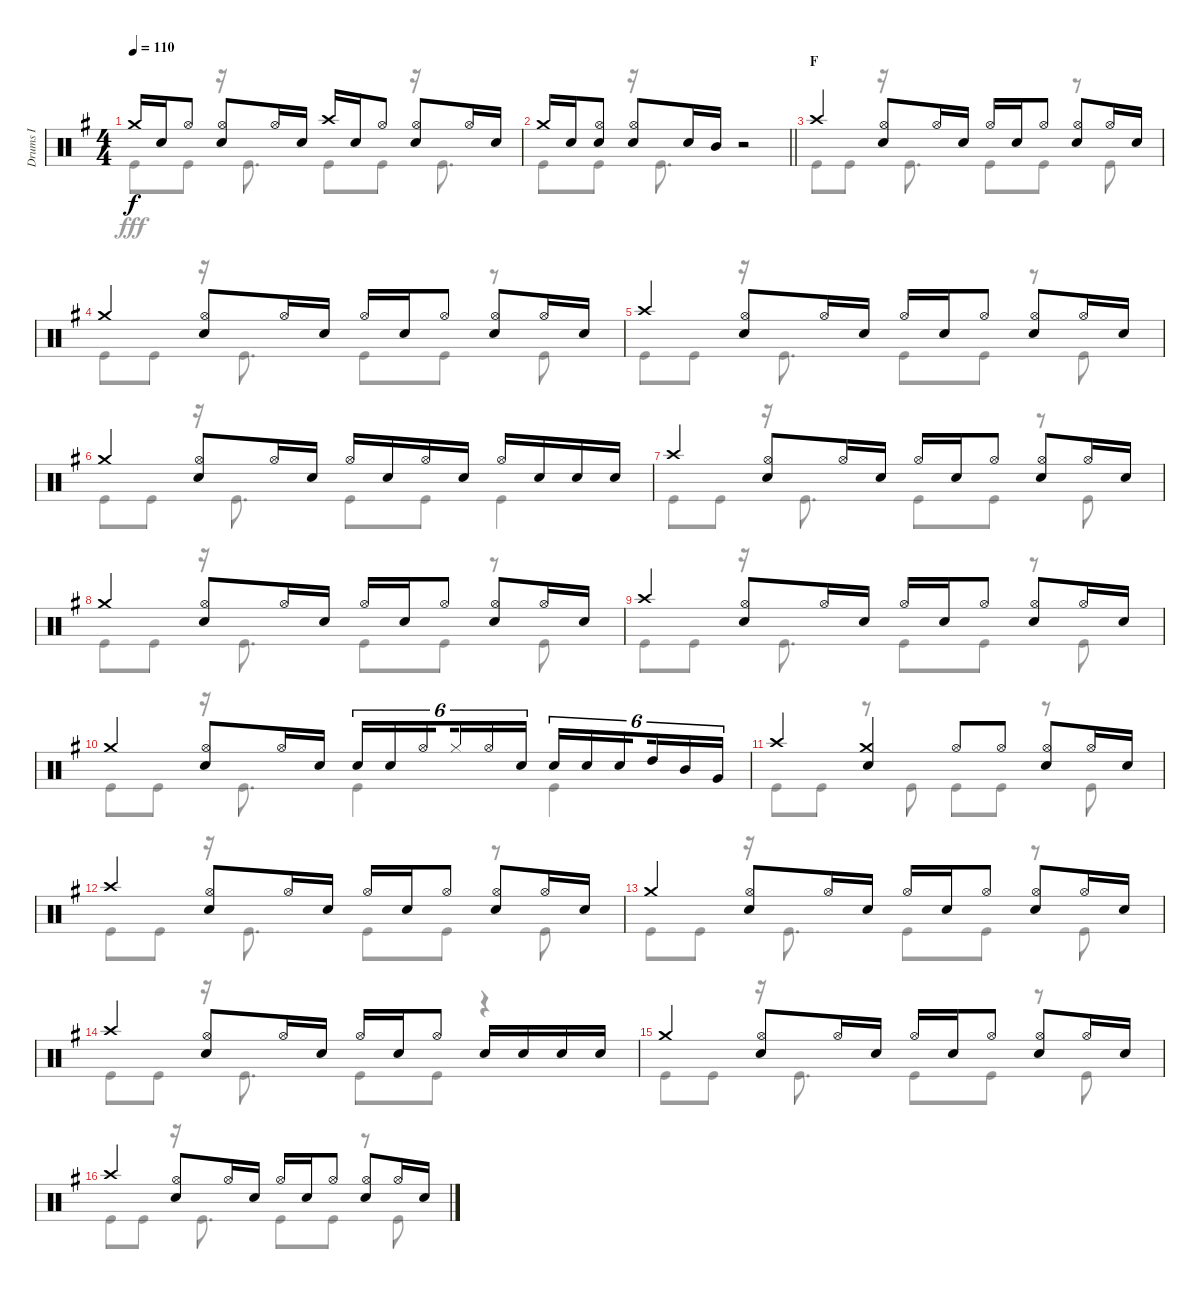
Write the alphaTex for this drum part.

\track ("Drums I" "Drums I") {instrument percussion}
\staff {score}
\articulation defaults
\voice
\ts (4 4)
\tempo 110
\clef neutral
\ks g "Crash medium (hit)".16{dy f} "Snare (hit) 2".16 "Hi-Hat (open)".8
("Hi-Hat (open)" "Snare (hit) 2").8 "Hi-Hat (open)".16 "Snare (hit) 2".16 "Crash high (hit)".16 "Snare (hit) 2".16 "Hi-Hat (open)".8 ("Hi-Hat (open)" "Snare (hit) 2").8 "Hi-Hat (open)".16 "Snare (hit) 2".16 |
\barLineRight lightlight "Crash medium (hit)".16 "Snare (hit) 2".16
("Hi-Hat (open)" "Snare (hit) 2").8 ("Hi-Hat (open)" "Snare (hit) 2").8 "Snare (hit) 2".16 "Mid Tom (hit)".16 r.2 |
\section ("" "F")
"Crash high (hit)".4 ("Hi-Hat (open)" "Snare (hit) 2").8 "Hi-Hat (open)".16 "Snare (hit) 2".16 "Hi-Hat (open)".16 "Snare (hit) 2".16 "Hi-Hat (open)".8 ("Hi-Hat (open)" "Snare (hit) 2").8 "Hi-Hat (open)".16 "Snare (hit) 2".16 |
"Crash medium (hit)".4 ("Hi-Hat (open)" "Snare (hit) 2").8 "Hi-Hat (open)".16 "Snare (hit) 2".16 "Hi-Hat (open)".16 "Snare (hit) 2".16 "Hi-Hat (open)".8 ("Hi-Hat (open)" "Snare (hit) 2").8 "Hi-Hat (open)".16 "Snare (hit) 2".16 |
"Crash high (hit)".4 ("Hi-Hat (open)" "Snare (hit) 2").8 "Hi-Hat (open)".16 "Snare (hit) 2".16 "Hi-Hat (open)".16 "Snare (hit) 2".16 "Hi-Hat (open)".8 ("Hi-Hat (open)" "Snare (hit) 2").8 "Hi-Hat (open)".16 "Snare (hit) 2".16 |
"Crash medium (hit)".4 ("Hi-Hat (open)" "Snare (hit) 2").8 "Hi-Hat (open)".16 "Snare (hit) 2".16 "Hi-Hat (open)".16 "Snare (hit) 2".16 "Hi-Hat (open)".16 "Snare (hit) 2".16 "Hi-Hat (open)".16 "Snare (hit) 2".16 "Snare (hit) 2".16 "Snare (hit) 2".16 |
"Crash high (hit)".4 ("Hi-Hat (open)" "Snare (hit) 2").8 "Hi-Hat (open)".16 "Snare (hit) 2".16 "Hi-Hat (open)".16 "Snare (hit) 2".16 "Hi-Hat (open)".8 ("Hi-Hat (open)" "Snare (hit) 2").8 "Hi-Hat (open)".16 "Snare (hit) 2".16 |
"Crash medium (hit)".4 ("Hi-Hat (open)" "Snare (hit) 2").8 "Hi-Hat (open)".16 "Snare (hit) 2".16 "Hi-Hat (open)".16 "Snare (hit) 2".16 "Hi-Hat (open)".8 ("Hi-Hat (open)" "Snare (hit) 2").8 "Hi-Hat (open)".16 "Snare (hit) 2".16 |
"Crash high (hit)".4 ("Hi-Hat (open)" "Snare (hit) 2").8 "Hi-Hat (open)".16 "Snare (hit) 2".16 "Hi-Hat (open)".16 "Snare (hit) 2".16 "Hi-Hat (open)".8 ("Hi-Hat (open)" "Snare (hit) 2").8 "Hi-Hat (open)".16 "Snare (hit) 2".16 |
"Crash medium (hit)".4 ("Hi-Hat (open)" "Snare (hit) 2").8 "Hi-Hat (open)".16 "Snare (hit) 2".16 "Snare (hit) 2".16{tu (6 4)} "Snare (hit) 2".16{tu (6 4)} "Hi-Hat (open)".16{tu (6 4) beam splitsecondary} "Hi-Hat (closed)".16{tu (6 4)} "Hi-Hat (open)".16{tu (6 4)} "Snare (hit) 2".16{tu (6 4)} "Snare (hit) 2".16{tu (6 4)} "Snare (hit) 2".16{tu (6 4)} "Snare (hit) 2".16{tu (6 4) beam splitsecondary} "High Tom (hit)".16{tu (6 4)} "Mid Tom (hit)".16{tu (6 4)} "Very Low Tom (hit)".16{tu (6 4)} |
"Crash high (hit)".4 ("Crash medium (hit)" "Snare (hit) 2").4 "Hi-Hat (open)".8 "Hi-Hat (open)".8 ("Hi-Hat (open)" "Snare (hit) 2").8 "Hi-Hat (open)".16 "Snare (hit) 2".16 |
"Crash high (hit)".4 ("Hi-Hat (open)" "Snare (hit) 2").8 "Hi-Hat (open)".16 "Snare (hit) 2".16 "Hi-Hat (open)".16 "Snare (hit) 2".16 "Hi-Hat (open)".8 ("Hi-Hat (open)" "Snare (hit) 2").8 "Hi-Hat (open)".16 "Snare (hit) 2".16 |
"Crash medium (hit)".4 ("Hi-Hat (open)" "Snare (hit) 2").8 "Hi-Hat (open)".16 "Snare (hit) 2".16 "Hi-Hat (open)".16 "Snare (hit) 2".16 "Hi-Hat (open)".8 ("Hi-Hat (open)" "Snare (hit) 2").8 "Hi-Hat (open)".16 "Snare (hit) 2".16 |
"Crash high (hit)".4 ("Hi-Hat (open)" "Snare (hit) 2").8 "Hi-Hat (open)".16 "Snare (hit) 2".16 "Hi-Hat (open)".16 "Snare (hit) 2".16 "Hi-Hat (open)".8 "Snare (hit) 2".16 "Snare (hit) 2".16 "Snare (hit) 2".16 "Snare (hit) 2".16 |
"Crash medium (hit)".4 ("Hi-Hat (open)" "Snare (hit) 2").8 "Hi-Hat (open)".16 "Snare (hit) 2".16 "Hi-Hat (open)".16 "Snare (hit) 2".16 "Hi-Hat (open)".8 ("Hi-Hat (open)" "Snare (hit) 2").8 "Hi-Hat (open)".16 "Snare (hit) 2".16 |
"Crash high (hit)".4 ("Hi-Hat (open)" "Snare (hit) 2").8 "Hi-Hat (open)".16 "Snare (hit) 2".16 "Hi-Hat (open)".16 "Snare (hit) 2".16 "Hi-Hat (open)".8 ("Hi-Hat (open)" "Snare (hit) 2").8 "Hi-Hat (open)".16 "Snare (hit) 2".16
\voice
\clef neutral
\ottava regular
\simile none
\ks g "Kick (hit)".8{dy fff} "Kick (hit)".8
r.16 "Kick (hit)".8{d} "Kick (hit)".8 "Kick (hit)".8 r.16 "Kick (hit)".8{d} |
\barLineRight lightlight "Kick (hit)".8 "Kick (hit)".8
r.16 "Kick (hit)".8{d} r.2 |
"Kick (hit)".8 "Kick (hit)".8 r.16 "Kick (hit)".8{d} "Kick (hit)".8 "Kick (hit)".8 r.8 "Kick (hit)".8 |
"Kick (hit)".8 "Kick (hit)".8 r.16 "Kick (hit)".8{d} "Kick (hit)".8 "Kick (hit)".8 r.8 "Kick (hit)".8 |
"Kick (hit)".8 "Kick (hit)".8 r.16 "Kick (hit)".8{d} "Kick (hit)".8 "Kick (hit)".8 r.8 "Kick (hit)".8 |
"Kick (hit)".8 "Kick (hit)".8 r.16 "Kick (hit)".8{d} "Kick (hit)".8 "Kick (hit)".8 "Kick (hit)".4 |
"Kick (hit)".8 "Kick (hit)".8 r.16 "Kick (hit)".8{d} "Kick (hit)".8 "Kick (hit)".8 r.8 "Kick (hit)".8 |
"Kick (hit)".8 "Kick (hit)".8 r.16 "Kick (hit)".8{d} "Kick (hit)".8 "Kick (hit)".8 r.8 "Kick (hit)".8 |
"Kick (hit)".8 "Kick (hit)".8 r.16 "Kick (hit)".8{d} "Kick (hit)".8 "Kick (hit)".8 r.8 "Kick (hit)".8 |
"Kick (hit)".8 "Kick (hit)".8 r.16 "Kick (hit)".8{d} "Kick (hit)".4 "Kick (hit)".4 |
"Kick (hit)".8 "Kick (hit)".8 r.8 "Kick (hit)".8 "Kick (hit)".8 "Kick (hit)".8 r.8 "Kick (hit)".8 |
"Kick (hit)".8 "Kick (hit)".8 r.16 "Kick (hit)".8{d} "Kick (hit)".8 "Kick (hit)".8 r.8 "Kick (hit)".8 |
"Kick (hit)".8 "Kick (hit)".8 r.16 "Kick (hit)".8{d} "Kick (hit)".8 "Kick (hit)".8 r.8 "Kick (hit)".8 |
"Kick (hit)".8 "Kick (hit)".8 r.16 "Kick (hit)".8{d} "Kick (hit)".8 "Kick (hit)".8 r.4 |
"Kick (hit)".8 "Kick (hit)".8 r.16 "Kick (hit)".8{d} "Kick (hit)".8 "Kick (hit)".8 r.8 "Kick (hit)".8 |
"Kick (hit)".8 "Kick (hit)".8 r.16 "Kick (hit)".8{d} "Kick (hit)".8 "Kick (hit)".8 r.8 "Kick (hit)".8
